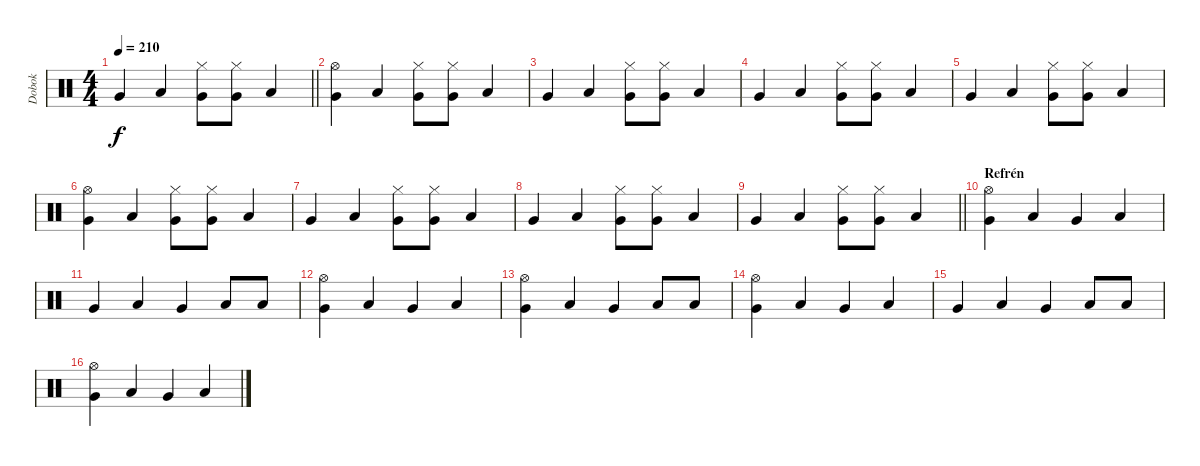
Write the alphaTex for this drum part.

\track ("Dobok" "Dobok") {instrument percussion}
\staff {score}
\articulation defaults
\ts (4 4)
\tempo 210
\clef neutral
\barLineRight lightlight
\ks c "Very Low Tom (hit)".4{dy f} "Low Tom (hit)".4
("Hi-Hat (closed)" "Very Low Tom (hit)").8 ("Hi-Hat (closed)" "Very Low Tom (hit)").8 "Low Tom (hit)".4 |
("Hi-Hat (open)" "Very Low Tom (hit)").4 "Low Tom (hit)".4 ("Hi-Hat (closed)" "Very Low Tom (hit)").8 ("Hi-Hat (closed)" "Very Low Tom (hit)").8 "Low Tom (hit)".4 |
"Very Low Tom (hit)".4 "Low Tom (hit)".4 ("Hi-Hat (closed)" "Very Low Tom (hit)").8 ("Hi-Hat (closed)" "Very Low Tom (hit)").8 "Low Tom (hit)".4 |
"Very Low Tom (hit)".4 "Low Tom (hit)".4 ("Hi-Hat (closed)" "Very Low Tom (hit)").8 ("Hi-Hat (closed)" "Very Low Tom (hit)").8 "Low Tom (hit)".4 |
"Very Low Tom (hit)".4 "Low Tom (hit)".4 ("Hi-Hat (closed)" "Very Low Tom (hit)").8 ("Hi-Hat (closed)" "Very Low Tom (hit)").8 "Low Tom (hit)".4 |
("Hi-Hat (open)" "Very Low Tom (hit)").4 "Low Tom (hit)".4 ("Hi-Hat (closed)" "Very Low Tom (hit)").8 ("Hi-Hat (closed)" "Very Low Tom (hit)").8 "Low Tom (hit)".4 |
"Very Low Tom (hit)".4 "Low Tom (hit)".4 ("Hi-Hat (closed)" "Very Low Tom (hit)").8 ("Hi-Hat (closed)" "Very Low Tom (hit)").8 "Low Tom (hit)".4 |
"Very Low Tom (hit)".4 "Low Tom (hit)".4 ("Hi-Hat (closed)" "Very Low Tom (hit)").8 ("Hi-Hat (closed)" "Very Low Tom (hit)").8 "Low Tom (hit)".4 |
\barLineRight lightlight "Very Low Tom (hit)".4 "Low Tom (hit)".4
("Hi-Hat (closed)" "Very Low Tom (hit)").8 ("Hi-Hat (closed)" "Very Low Tom (hit)").8 "Low Tom (hit)".4 |
\section ("" "Refrén")
("Hi-Hat (open)" "Very Low Tom (hit)").4 "Low Tom (hit)".4 "Very Low Tom (hit)".4 "Low Tom (hit)".4 |
"Very Low Tom (hit)".4 "Low Tom (hit)".4 "Very Low Tom (hit)".4 "Low Tom (hit)".8 "Low Tom (hit)".8 |
("Hi-Hat (open)" "Very Low Tom (hit)").4 "Low Tom (hit)".4 "Very Low Tom (hit)".4 "Low Tom (hit)".4 |
("Hi-Hat (open)" "Very Low Tom (hit)").4 "Low Tom (hit)".4 "Very Low Tom (hit)".4 "Low Tom (hit)".8 "Low Tom (hit)".8 |
("Hi-Hat (open)" "Very Low Tom (hit)").4 "Low Tom (hit)".4 "Very Low Tom (hit)".4 "Low Tom (hit)".4 |
"Very Low Tom (hit)".4 "Low Tom (hit)".4 "Very Low Tom (hit)".4 "Low Tom (hit)".8 "Low Tom (hit)".8 |
("Hi-Hat (open)" "Very Low Tom (hit)").4 "Low Tom (hit)".4 "Very Low Tom (hit)".4 "Low Tom (hit)".4
